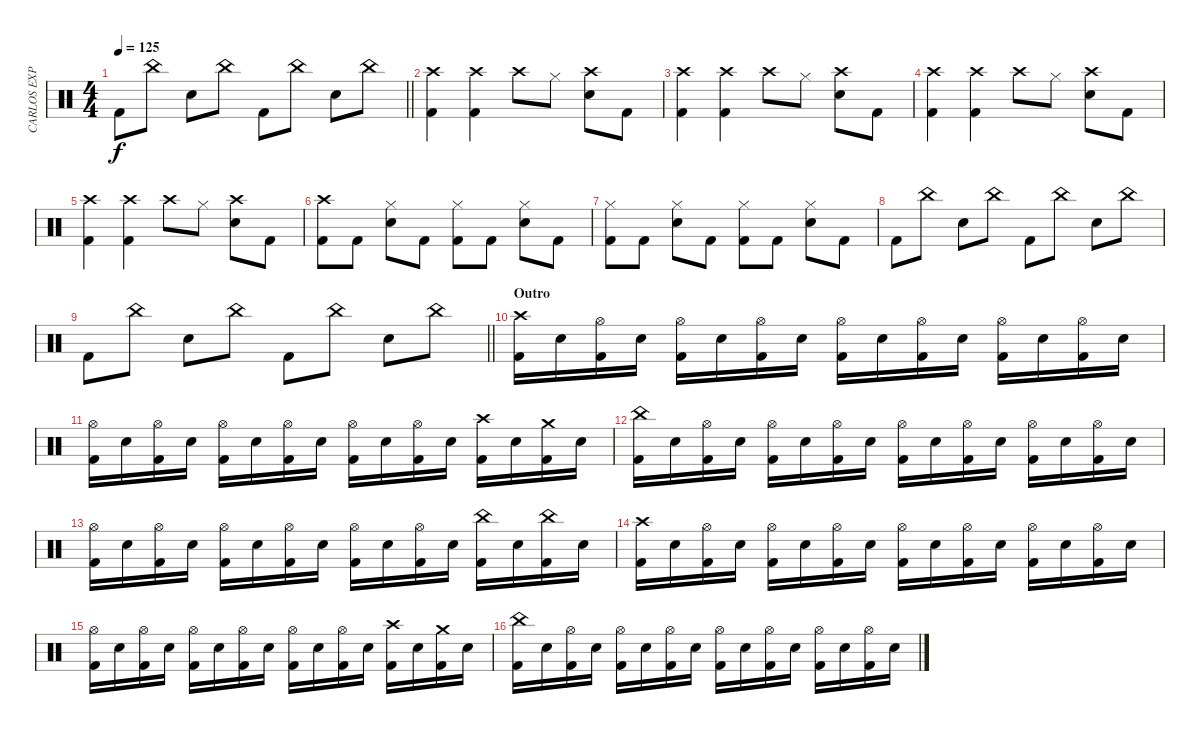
\track ("CARLOS EXPÓSITO" "CARLOS EXP") {instrument percussion}
\staff {score}
\articulation defaults
\ts (4 4)
\tempo 125
\clef neutral
\barLineRight lightlight
\ks c "Kick (hit) 2".8{dy f} "China (hit)".8 "Snare (hit) 2".8 "China (hit)".8 "Kick (hit) 2".8 "China (hit)".8 "Snare (hit) 2".8 "China (hit)".8
|
("Crash high (hit)" "Kick (hit) 2").4 ("Kick (hit) 2" "Crash high (hit)").4 "Crash high (hit)".8 "Hi-Hat (closed)".8 ("Crash high (hit)" "Snare (hit) 2").8 "Kick (hit) 2".8 |
("Crash high (hit)" "Kick (hit) 2").4 ("Kick (hit) 2" "Crash high (hit)").4 "Crash high (hit)".8 "Hi-Hat (closed)".8 ("Crash high (hit)" "Snare (hit) 2").8 "Kick (hit) 2".8 |
("Crash high (hit)" "Kick (hit) 2").4 ("Kick (hit) 2" "Crash high (hit)").4 "Crash high (hit)".8 "Hi-Hat (closed)".8 ("Crash high (hit)" "Snare (hit) 2").8 "Kick (hit) 2".8 |
("Crash high (hit)" "Kick (hit) 2").4 ("Kick (hit) 2" "Crash high (hit)").4 "Crash high (hit)".8 "Hi-Hat (closed)".8 ("Crash high (hit)" "Snare (hit) 2").8 "Kick (hit) 2".8 |
("Crash high (hit)" "Kick (hit) 2").8 "Kick (hit) 2".8 ("Hi-Hat (closed)" "Snare (hit) 2").8 "Kick (hit) 2".8 ("Hi-Hat (closed)" "Kick (hit) 2").8 "Kick (hit) 2".8 ("Hi-Hat (closed)" "Snare (hit) 2").8 "Kick (hit) 2".8 |
("Hi-Hat (closed)" "Kick (hit) 2").8 "Kick (hit) 2".8 ("Hi-Hat (closed)" "Snare (hit) 2").8 "Kick (hit) 2".8 ("Hi-Hat (closed)" "Kick (hit) 2").8 "Kick (hit) 2".8 ("Hi-Hat (closed)" "Snare (hit) 2").8 "Kick (hit) 2".8 |
"Kick (hit) 2".8 "China (hit)".8 "Snare (hit) 2".8 "China (hit)".8 "Kick (hit) 2".8 "China (hit)".8 "Snare (hit) 2".8 "China (hit)".8 |
\barLineRight lightlight "Kick (hit) 2".8 "China (hit)".8 "Snare (hit) 2".8 "China (hit)".8 "Kick (hit) 2".8 "China (hit)".8 "Snare (hit) 2".8 "China (hit)".8
|
\section ("" "Outro")
("Crash high (hit)" "Kick (hit) 2").16 "Snare (hit) 2".16 ("Hi-Hat (open)" "Kick (hit) 2").16 "Snare (hit) 2".16 ("Hi-Hat (open)" "Kick (hit) 2").16 "Snare (hit) 2".16 ("Hi-Hat (open)" "Kick (hit) 2").16 "Snare (hit) 2".16 ("Hi-Hat (open)" "Kick (hit) 2").16 "Snare (hit) 2".16 ("Hi-Hat (open)" "Kick (hit) 2").16 "Snare (hit) 2".16 ("Hi-Hat (open)" "Kick (hit) 2").16 "Snare (hit) 2".16 ("Hi-Hat (open)" "Kick (hit) 2").16 "Snare (hit) 2".16 |
("Hi-Hat (open)" "Kick (hit) 2").16 "Snare (hit) 2".16 ("Hi-Hat (open)" "Kick (hit) 2").16 "Snare (hit) 2".16 ("Hi-Hat (open)" "Kick (hit) 2").16 "Snare (hit) 2".16 ("Hi-Hat (open)" "Kick (hit) 2").16 "Snare (hit) 2".16 ("Hi-Hat (open)" "Kick (hit) 2").16 "Snare (hit) 2".16 ("Hi-Hat (open)" "Kick (hit) 2").16 "Snare (hit) 2".16 ("Crash high (hit)" "Kick (hit) 2").16 "Snare (hit) 2".16 ("Crash medium (hit)" "Kick (hit) 2").16 "Snare (hit) 2".16 |
("China (hit)" "Kick (hit) 2").16 "Snare (hit) 2".16 ("Hi-Hat (open)" "Kick (hit) 2").16 "Snare (hit) 2".16 ("Hi-Hat (open)" "Kick (hit) 2").16 "Snare (hit) 2".16 ("Hi-Hat (open)" "Kick (hit) 2").16 "Snare (hit) 2".16 ("Hi-Hat (open)" "Kick (hit) 2").16 "Snare (hit) 2".16 ("Hi-Hat (open)" "Kick (hit) 2").16 "Snare (hit) 2".16 ("Hi-Hat (open)" "Kick (hit) 2").16 "Snare (hit) 2".16 ("Hi-Hat (open)" "Kick (hit) 2").16 "Snare (hit) 2".16 |
("Hi-Hat (open)" "Kick (hit) 2").16 "Snare (hit) 2".16 ("Hi-Hat (open)" "Kick (hit) 2").16 "Snare (hit) 2".16 ("Hi-Hat (open)" "Kick (hit) 2").16 "Snare (hit) 2".16 ("Hi-Hat (open)" "Kick (hit) 2").16 "Snare (hit) 2".16 ("Hi-Hat (open)" "Kick (hit) 2").16 "Snare (hit) 2".16 ("Hi-Hat (open)" "Kick (hit) 2").16 "Snare (hit) 2".16 ("China (hit)" "Kick (hit) 2").16 "Snare (hit) 2".16 ("China (hit)" "Kick (hit) 2").16 "Snare (hit) 2".16 |
("Crash high (hit)" "Kick (hit) 2").16 "Snare (hit) 2".16 ("Hi-Hat (open)" "Kick (hit) 2").16 "Snare (hit) 2".16 ("Hi-Hat (open)" "Kick (hit) 2").16 "Snare (hit) 2".16 ("Hi-Hat (open)" "Kick (hit) 2").16 "Snare (hit) 2".16 ("Hi-Hat (open)" "Kick (hit) 2").16 "Snare (hit) 2".16 ("Hi-Hat (open)" "Kick (hit) 2").16 "Snare (hit) 2".16 ("Hi-Hat (open)" "Kick (hit) 2").16 "Snare (hit) 2".16 ("Hi-Hat (open)" "Kick (hit) 2").16 "Snare (hit) 2".16 |
("Hi-Hat (open)" "Kick (hit) 2").16 "Snare (hit) 2".16 ("Hi-Hat (open)" "Kick (hit) 2").16 "Snare (hit) 2".16 ("Hi-Hat (open)" "Kick (hit) 2").16 "Snare (hit) 2".16 ("Hi-Hat (open)" "Kick (hit) 2").16 "Snare (hit) 2".16 ("Hi-Hat (open)" "Kick (hit) 2").16 "Snare (hit) 2".16 ("Hi-Hat (open)" "Kick (hit) 2").16 "Snare (hit) 2".16 ("Crash high (hit)" "Kick (hit) 2").16 "Snare (hit) 2".16 ("Crash medium (hit)" "Kick (hit) 2").16 "Snare (hit) 2".16 |
("China (hit)" "Kick (hit) 2").16 "Snare (hit) 2".16 ("Hi-Hat (open)" "Kick (hit) 2").16 "Snare (hit) 2".16 ("Hi-Hat (open)" "Kick (hit) 2").16 "Snare (hit) 2".16 ("Hi-Hat (open)" "Kick (hit) 2").16 "Snare (hit) 2".16 ("Hi-Hat (open)" "Kick (hit) 2").16 "Snare (hit) 2".16 ("Hi-Hat (open)" "Kick (hit) 2").16 "Snare (hit) 2".16 ("Hi-Hat (open)" "Kick (hit) 2").16 "Snare (hit) 2".16 ("Hi-Hat (open)" "Kick (hit) 2").16 "Snare (hit) 2".16
